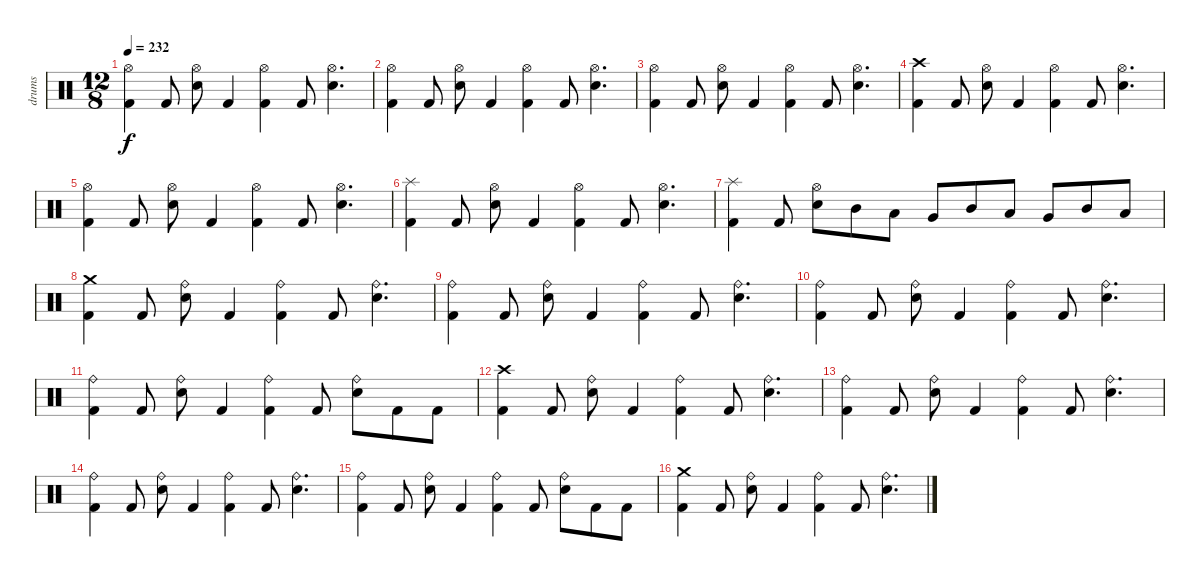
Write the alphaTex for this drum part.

\track ("drums" "drums") {instrument percussion}
\staff {score}
\articulation defaults
\ts (12 8)
\tempo 232
\clef neutral
\ks c
("Hi-Hat (open)" "Kick (hit) 2").4{dy f} "Kick (hit) 2".8 ("Hi-Hat (open)" "Electric Snare (hit)").8 "Kick (hit) 2".4 ("Hi-Hat (open)" "Kick (hit) 2").4 "Kick (hit) 2".8 ("Hi-Hat (open)" "Electric Snare (hit)").4{d} |
("Hi-Hat (open)" "Kick (hit) 2").4 "Kick (hit) 2".8 ("Hi-Hat (open)" "Electric Snare (hit)").8 "Kick (hit) 2".4 ("Hi-Hat (open)" "Kick (hit) 2").4 "Kick (hit) 2".8 ("Hi-Hat (open)" "Electric Snare (hit)").4{d} |
("Hi-Hat (open)" "Kick (hit) 2").4 "Kick (hit) 2".8 ("Hi-Hat (open)" "Electric Snare (hit)").8 "Kick (hit) 2".4 ("Hi-Hat (open)" "Kick (hit) 2").4 "Kick (hit) 2".8 ("Hi-Hat (open)" "Electric Snare (hit)").4{d} |
("Kick (hit) 2" "Crash high (hit)").4 "Kick (hit) 2".8 ("Electric Snare (hit)" "Hi-Hat (open)").8 "Kick (hit) 2".4 ("Kick (hit) 2" "Hi-Hat (open)").4 "Kick (hit) 2".8 ("Electric Snare (hit)" "Hi-Hat (open)").4{d} |
("Hi-Hat (open)" "Kick (hit) 2").4 "Kick (hit) 2".8 ("Hi-Hat (open)" "Electric Snare (hit)").8 "Kick (hit) 2".4 ("Hi-Hat (open)" "Kick (hit) 2").4 "Kick (hit) 2".8 ("Hi-Hat (open)" "Electric Snare (hit)").4{d} |
("Splash (hit)" "Kick (hit) 2").4 "Kick (hit) 2".8 ("Hi-Hat (open)" "Electric Snare (hit)").8 "Kick (hit) 2".4 ("Hi-Hat (open)" "Kick (hit) 2").4 "Kick (hit) 2".8 ("Hi-Hat (open)" "Electric Snare (hit)").4{d} |
("Splash (hit)" "Kick (hit) 2").4 "Kick (hit) 2".8 ("Hi-Hat (open)" "Electric Snare (hit)").8 "Mid Tom (hit)".8 "Low Tom (hit)".8 "Very Low Tom (hit)".8 "Mid Tom (hit)".8 "Low Tom (hit)".8 "Very Low Tom (hit)".8 "Mid Tom (hit)".8 "Low Tom (hit)".8 |
("Crash medium (hit)" "Kick (hit) 2").4 "Kick (hit) 2".8 ("Ride (bell)" "Electric Snare (hit)").8 "Kick (hit) 2".4 ("Ride (bell)" "Kick (hit) 2").4 "Kick (hit) 2".8 ("Ride (bell)" "Electric Snare (hit)").4{d} |
("Ride (bell)" "Kick (hit) 2").4 "Kick (hit) 2".8 ("Ride (bell)" "Electric Snare (hit)").8 "Kick (hit) 2".4 ("Ride (bell)" "Kick (hit) 2").4 "Kick (hit) 2".8 ("Ride (bell)" "Electric Snare (hit)").4{d} |
("Kick (hit) 2" "Ride (bell)").4 "Kick (hit) 2".8 ("Ride (bell)" "Electric Snare (hit)").8 "Kick (hit) 2".4 ("Kick (hit) 2" "Ride (bell)").4 "Kick (hit) 2".8 ("Ride (bell)" "Electric Snare (hit)").4{d} |
("Kick (hit) 2" "Ride (bell)").4 "Kick (hit) 2".8 ("Ride (bell)" "Electric Snare (hit)").8 "Kick (hit) 2".4 ("Ride (bell)" "Kick (hit) 2").4 "Kick (hit) 2".8 ("Ride (bell)" "Electric Snare (hit)").8 "Kick (hit) 2".8 "Kick (hit) 2".8 |
("Crash high (hit)" "Kick (hit) 2").4 "Kick (hit) 2".8 ("Ride (bell)" "Electric Snare (hit)").8 "Kick (hit) 2".4 ("Ride (bell)" "Kick (hit) 2").4 "Kick (hit) 2".8 ("Ride (bell)" "Electric Snare (hit)").4{d} |
("Ride (bell)" "Kick (hit) 2").4 "Kick (hit) 2".8 ("Ride (bell)" "Electric Snare (hit)").8 "Kick (hit) 2".4 ("Ride (bell)" "Kick (hit) 2").4 "Kick (hit) 2".8 ("Ride (bell)" "Electric Snare (hit)").4{d} |
("Kick (hit) 2" "Ride (bell)").4 "Kick (hit) 2".8 ("Ride (bell)" "Electric Snare (hit)").8 "Kick (hit) 2".4 ("Kick (hit) 2" "Ride (bell)").4 "Kick (hit) 2".8 ("Ride (bell)" "Electric Snare (hit)").4{d} |
("Kick (hit) 2" "Ride (bell)").4 "Kick (hit) 2".8 ("Ride (bell)" "Electric Snare (hit)").8 "Kick (hit) 2".4 ("Ride (bell)" "Kick (hit) 2").4 "Kick (hit) 2".8 ("Ride (bell)" "Electric Snare (hit)").8 "Kick (hit) 2".8 "Kick (hit) 2".8 |
("Crash medium (hit)" "Kick (hit) 2").4 "Kick (hit) 2".8 ("Ride (bell)" "Electric Snare (hit)").8 "Kick (hit) 2".4 ("Ride (bell)" "Kick (hit) 2").4 "Kick (hit) 2".8 ("Ride (bell)" "Electric Snare (hit)").4{d}
